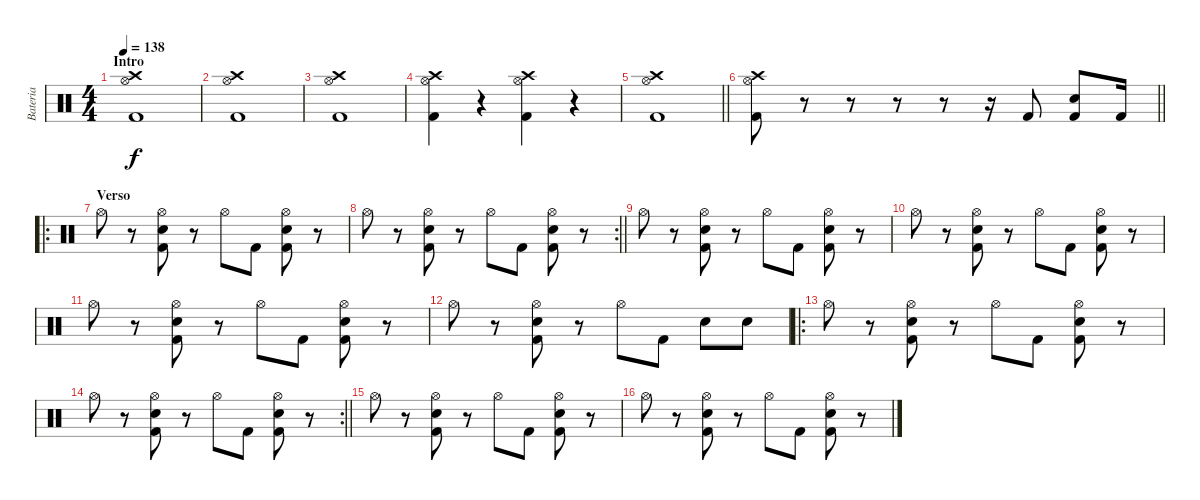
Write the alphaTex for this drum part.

\track ("Bateria" "Bateria") {instrument percussion}
\staff {score}
\articulation defaults
\ts (4 4)
\section ("" "Intro")
\tempo 138
\clef neutral
\ks c
("Crash high (hit)" "Hi-Hat (open)" "Kick (hit) 2").1{dy f} |
("Crash high (hit)" "Hi-Hat (open)" "Kick (hit) 2").1 |
("Crash high (hit)" "Hi-Hat (open)" "Kick (hit) 2").1 |
("Crash high (hit)" "Hi-Hat (open)" "Kick (hit) 2").4 r.4 ("Crash high (hit)" "Hi-Hat (open)" "Kick (hit) 2").4 r.4 |
\barLineRight lightlight
("Crash high (hit)" "Hi-Hat (open)" "Kick (hit) 2").1 |
\section ("" "")
\barLineRight lightlight
("Crash high (hit)" "Hi-Hat (open)" "Kick (hit) 2").8 r.8 r.8 r.8 r.8 r.16 "Kick (hit) 2".8 ("Electric Snare (hit)" "Kick (hit) 2").8 "Kick (hit) 2".16 |
\ro
\section ("" "Verso")
"Hi-Hat (open)".8 r.8 ("Hi-Hat (open)" "Electric Snare (hit)" "Kick (hit) 2").8 r.8 "Hi-Hat (open)".8 "Kick (hit) 2".8 ("Hi-Hat (open)" "Electric Snare (hit)" "Kick (hit) 2").8 r.8 |
\rc 2
\barLineRight lightlight "Hi-Hat (open)".8
r.8 ("Hi-Hat (open)" "Electric Snare (hit)" "Kick (hit) 2").8 r.8 "Hi-Hat (open)".8 "Kick (hit) 2".8 ("Hi-Hat (open)" "Electric Snare (hit)" "Kick (hit) 2").8 r.8 |
"Hi-Hat (open)".8 r.8 ("Hi-Hat (open)" "Electric Snare (hit)" "Kick (hit) 2").8 r.8 "Hi-Hat (open)".8 "Kick (hit) 2".8 ("Hi-Hat (open)" "Electric Snare (hit)" "Kick (hit) 2").8 r.8 |
"Hi-Hat (open)".8 r.8 ("Hi-Hat (open)" "Electric Snare (hit)" "Kick (hit) 2").8 r.8 "Hi-Hat (open)".8 "Kick (hit) 2".8 ("Hi-Hat (open)" "Electric Snare (hit)" "Kick (hit) 2").8 r.8 |
"Hi-Hat (open)".8 r.8 ("Hi-Hat (open)" "Electric Snare (hit)" "Kick (hit) 2").8 r.8 "Hi-Hat (open)".8 "Kick (hit) 2".8 ("Hi-Hat (open)" "Electric Snare (hit)" "Kick (hit) 2").8 r.8 |
"Hi-Hat (open)".8 r.8 ("Hi-Hat (open)" "Electric Snare (hit)" "Kick (hit) 2").8 r.8 "Hi-Hat (open)".8 "Kick (hit) 2".8 "Electric Snare (hit)".8 "Electric Snare (hit)".8 |
\ro "Hi-Hat (open)".8
r.8 ("Hi-Hat (open)" "Electric Snare (hit)" "Kick (hit) 2").8 r.8 "Hi-Hat (open)".8 "Kick (hit) 2".8 ("Hi-Hat (open)" "Electric Snare (hit)" "Kick (hit) 2").8 r.8 |
\rc 2
\barLineRight lightlight "Hi-Hat (open)".8
r.8 ("Hi-Hat (open)" "Electric Snare (hit)" "Kick (hit) 2").8 r.8 "Hi-Hat (open)".8 "Kick (hit) 2".8 ("Hi-Hat (open)" "Electric Snare (hit)" "Kick (hit) 2").8 r.8 |
"Hi-Hat (open)".8 r.8 ("Hi-Hat (open)" "Electric Snare (hit)" "Kick (hit) 2").8 r.8 "Hi-Hat (open)".8 "Kick (hit) 2".8 ("Hi-Hat (open)" "Electric Snare (hit)" "Kick (hit) 2").8 r.8 |
"Hi-Hat (open)".8 r.8 ("Hi-Hat (open)" "Electric Snare (hit)" "Kick (hit) 2").8 r.8 "Hi-Hat (open)".8 "Kick (hit) 2".8 ("Hi-Hat (open)" "Electric Snare (hit)" "Kick (hit) 2").8 r.8
